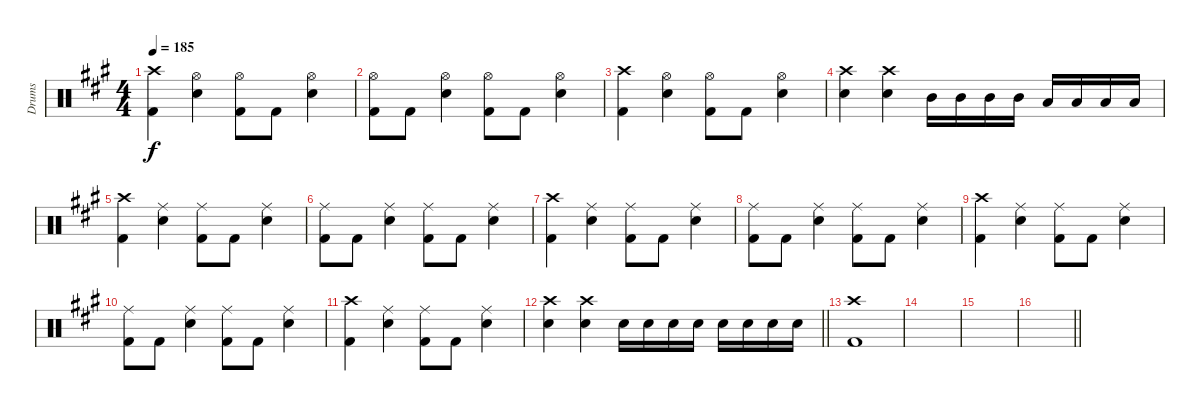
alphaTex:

\track ("Drums" "Drums") {instrument percussion}
\staff {score}
\articulation defaults
\ts (4 4)
\tempo 185
\clef neutral
\ks f#minor
("Crash high (hit)" "Kick (hit) 2").4{dy f} ("Hi-Hat (open)" "Electric Snare (hit)").4 ("Hi-Hat (open)" "Kick (hit) 2").8 "Kick (hit) 2".8 ("Hi-Hat (open)" "Electric Snare (hit)").4 |
("Hi-Hat (open)" "Kick (hit) 2").8 "Kick (hit) 2".8 ("Hi-Hat (open)" "Electric Snare (hit)").4 ("Hi-Hat (open)" "Kick (hit) 2").8 "Kick (hit) 2".8 ("Hi-Hat (open)" "Electric Snare (hit)").4 |
("Crash high (hit)" "Kick (hit) 2").4 ("Hi-Hat (open)" "Electric Snare (hit)").4 ("Hi-Hat (open)" "Kick (hit) 2").8 "Kick (hit) 2".8 ("Hi-Hat (open)" "Electric Snare (hit)").4 |
("Crash high (hit)" "Electric Snare (hit)").4 ("Crash high (hit)" "Electric Snare (hit)").4 "Mid Tom (hit)".16 "Mid Tom (hit)".16 "Mid Tom (hit)".16 "Mid Tom (hit)".16 "Low Tom (hit)".16 "Low Tom (hit)".16 "Low Tom (hit)".16 "Low Tom (hit)".16 |
("Crash high (hit)" "Kick (hit) 2").4 ("Ride (middle)" "Electric Snare (hit)").4 ("Ride (middle)" "Kick (hit) 2").8 "Kick (hit) 2".8 ("Ride (middle)" "Electric Snare (hit)").4 |
("Ride (middle)" "Kick (hit) 2").8 "Kick (hit) 2".8 ("Ride (middle)" "Electric Snare (hit)").4 ("Ride (middle)" "Kick (hit) 2").8 "Kick (hit) 2".8 ("Ride (middle)" "Electric Snare (hit)").4 |
("Crash high (hit)" "Kick (hit) 2").4 ("Ride (middle)" "Electric Snare (hit)").4 ("Ride (middle)" "Kick (hit) 2").8 "Kick (hit) 2".8 ("Ride (middle)" "Electric Snare (hit)").4 |
("Ride (middle)" "Kick (hit) 2").8 "Kick (hit) 2".8 ("Ride (middle)" "Electric Snare (hit)").4 ("Ride (middle)" "Kick (hit) 2").8 "Kick (hit) 2".8 ("Ride (middle)" "Electric Snare (hit)").4 |
("Crash high (hit)" "Kick (hit) 2").4 ("Ride (middle)" "Electric Snare (hit)").4 ("Ride (middle)" "Kick (hit) 2").8 "Kick (hit) 2".8 ("Ride (middle)" "Electric Snare (hit)").4 |
("Ride (middle)" "Kick (hit) 2").8 "Kick (hit) 2".8 ("Ride (middle)" "Electric Snare (hit)").4 ("Ride (middle)" "Kick (hit) 2").8 "Kick (hit) 2".8 ("Ride (middle)" "Electric Snare (hit)").4 |
("Crash high (hit)" "Kick (hit) 2").4 ("Ride (middle)" "Electric Snare (hit)").4 ("Ride (middle)" "Kick (hit) 2").8 "Kick (hit) 2".8 ("Ride (middle)" "Electric Snare (hit)").4 |
\barLineRight lightlight
("Crash high (hit)" "Electric Snare (hit)").4 ("Crash high (hit)" "Electric Snare (hit)").4 "Electric Snare (hit)".16 "Electric Snare (hit)".16 "Electric Snare (hit)".16 "Electric Snare (hit)".16 "Electric Snare (hit)".16 "Electric Snare (hit)".16 "Electric Snare (hit)".16 "Electric Snare (hit)".16 |
("Crash high (hit)" "Kick (hit) 2").1 |
|
|
\barLineRight lightlight
